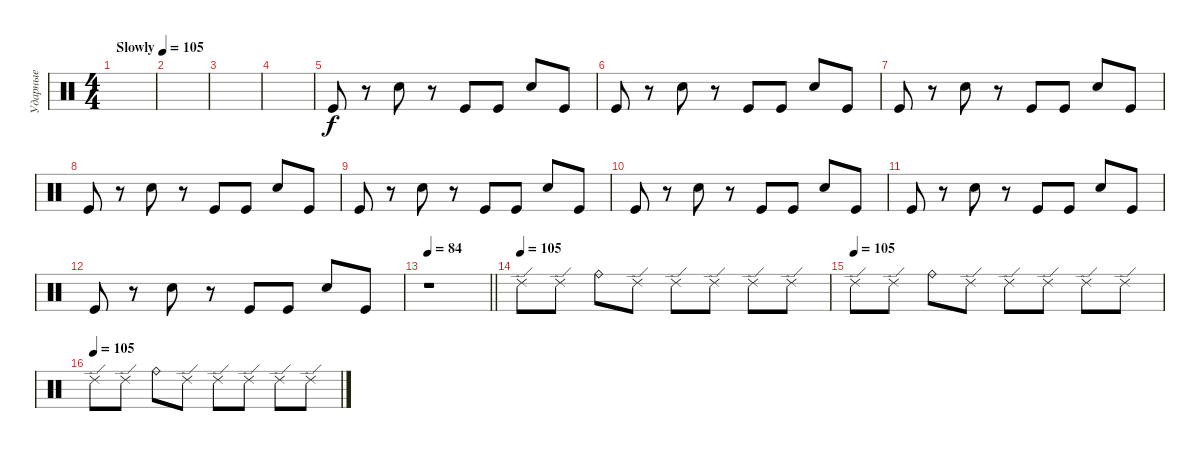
\track ("Ударные" "Ударные") {instrument percussion}
\staff {score}
\articulation defaults
\ts (4 4)
\tempo (105 "Slowly")
\clef neutral
\ks c
|
|
|
|
"Kick (hit)".8 r.8 "Electric Snare (hit)".8 r.8 "Kick (hit)".8 "Kick (hit)".8 "Electric Snare (hit)".8 "Kick (hit)".8 |
"Kick (hit)".8 r.8 "Electric Snare (hit)".8 r.8 "Kick (hit)".8 "Kick (hit)".8 "Electric Snare (hit)".8 "Kick (hit)".8 |
"Kick (hit)".8 r.8 "Electric Snare (hit)".8 r.8 "Kick (hit)".8 "Kick (hit)".8 "Electric Snare (hit)".8 "Kick (hit)".8 |
"Kick (hit)".8 r.8 "Electric Snare (hit)".8 r.8 "Kick (hit)".8 "Kick (hit)".8 "Electric Snare (hit)".8 "Kick (hit)".8 |
"Kick (hit)".8 r.8 "Electric Snare (hit)".8 r.8 "Kick (hit)".8 "Kick (hit)".8 "Electric Snare (hit)".8 "Kick (hit)".8 |
"Kick (hit)".8 r.8 "Electric Snare (hit)".8 r.8 "Kick (hit)".8 "Kick (hit)".8 "Electric Snare (hit)".8 "Kick (hit)".8 |
"Kick (hit)".8 r.8 "Electric Snare (hit)".8 r.8 "Kick (hit)".8 "Kick (hit)".8 "Electric Snare (hit)".8 "Kick (hit)".8 |
"Kick (hit)".8 r.8 "Electric Snare (hit)".8 r.8 "Kick (hit)".8 "Kick (hit)".8 "Electric Snare (hit)".8 "Kick (hit)".8 |
\tempo 84
\barLineRight lightlight
r.1 |
\tempo (105)
"Ride (edge) 2".8 "Ride (edge) 2".8 "Ride (bell)".8 "Ride (edge) 2".8 "Ride (edge) 2".8 "Ride (edge) 2".8 "Ride (edge) 2".8 "Ride (edge) 2".8 |
\tempo (105)
"Ride (edge) 2".8 "Ride (edge) 2".8 "Ride (bell)".8 "Ride (edge) 2".8 "Ride (edge) 2".8 "Ride (edge) 2".8 "Ride (edge) 2".8 "Ride (edge) 2".8 |
\tempo (105)
"Ride (edge) 2".8 "Ride (edge) 2".8 "Ride (bell)".8 "Ride (edge) 2".8 "Ride (edge) 2".8 "Ride (edge) 2".8 "Ride (edge) 2".8 "Ride (edge) 2".8
